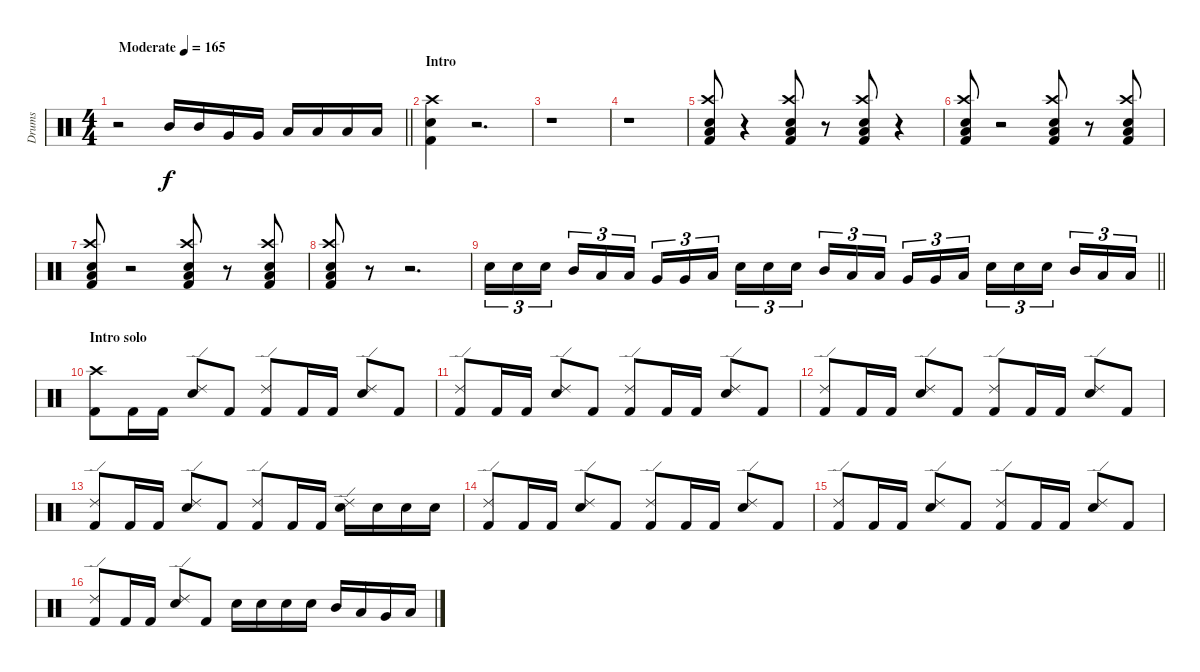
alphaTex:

\track ("Drums" "Drums") {instrument percussion}
\staff {score}
\articulation defaults
\ts (4 4)
\tempo (165 "Moderate")
\clef neutral
\barLineRight lightlight
\ks c
r.2{dy f} "Mid Tom (hit)".16 "Mid Tom (hit)".16 "Very Low Tom (hit)".16 "Very Low Tom (hit)".16 "Low Tom (hit)".16 "Low Tom (hit)".16 "Low Floor Tom (hit)".16 "Low Floor Tom (hit)".16 |
\section ("" "Intro")
("Crash high (hit)" "Snare (hit) 2" "Kick (hit) 2").4 r.2{d} |
r.1 |
r.1 |
("Crash high (hit)" "Snare (hit) 2" "Low Floor Tom (hit)" "Kick (hit) 2").8 r.4 ("Crash high (hit)" "Snare (hit) 2" "Low Floor Tom (hit)" "Kick (hit) 2").8 r.8 ("Crash high (hit)" "Snare (hit) 2" "Low Floor Tom (hit)" "Kick (hit) 2").8 r.4 |
("Crash high (hit)" "Snare (hit) 2" "Low Floor Tom (hit)" "Kick (hit) 2").8 r.2 ("Crash high (hit)" "Snare (hit) 2" "Low Floor Tom (hit)" "Kick (hit) 2").8 r.8 ("Crash high (hit)" "Snare (hit) 2" "Low Floor Tom (hit)" "Kick (hit) 2").8 |
("Crash high (hit)" "Snare (hit) 2" "Low Floor Tom (hit)" "Kick (hit) 2").8 r.2 ("Crash high (hit)" "Snare (hit) 2" "Low Floor Tom (hit)" "Kick (hit) 2").8 r.8 ("Crash high (hit)" "Snare (hit) 2" "Low Floor Tom (hit)" "Kick (hit) 2").8 |
("Crash high (hit)" "Snare (hit) 2" "Low Floor Tom (hit)" "Kick (hit) 2").8 r.8 r.2{d} |
\barLineRight lightlight "Snare (hit) 2".16{tu (3 2)} "Snare (hit) 2".16{tu (3 2)} "Snare (hit) 2".16{tu (3 2) beam splitsecondary} "Mid Tom (hit)".16{tu (3 2)} "Low Tom (hit)".16{tu (3 2)} "Low Tom (hit)".16{tu (3 2)} "Very Low Tom (hit)".16{tu (3 2)} "Very Low Tom (hit)".16{tu (3 2)} "Low Floor Tom (hit)".16{tu (3 2) beam splitsecondary} "Snare (hit) 2".16{tu (3 2)} "Snare (hit) 2".16{tu (3 2)} "Snare (hit) 2".16{tu (3 2)} "Mid Tom (hit)".16{tu (3 2)} "Low Tom (hit)".16{tu (3 2)} "Low Tom (hit)".16{tu (3 2) beam splitsecondary} "Very Low Tom (hit)".16{tu (3 2)} "Very Low Tom (hit)".16{tu (3 2)} "Low Floor Tom (hit)".16{tu (3 2)} "Snare (hit) 2".16{tu (3 2)} "Snare (hit) 2".16{tu (3 2)} "Snare (hit) 2".16{tu (3 2) beam splitsecondary} "Mid Tom (hit)".16{tu (3 2)} "Low Tom (hit)".16{tu (3 2)} "Low Tom (hit)".16{tu (3 2)}
|
\section ("" "Intro solo")
("Crash high (hit)" "Kick (hit) 2").8 "Kick (hit) 2".16 "Kick (hit) 2".16 ("Ride (edge) 2" "Snare (hit) 2").8 "Kick (hit) 2".8 ("Ride (edge) 2" "Kick (hit) 2").8 "Kick (hit) 2".16 "Kick (hit) 2".16 ("Ride (edge) 2" "Snare (hit) 2").8 "Kick (hit) 2".8 |
("Ride (edge) 2" "Kick (hit) 2").8 "Kick (hit) 2".16 "Kick (hit) 2".16 ("Ride (edge) 2" "Snare (hit) 2").8 "Kick (hit) 2".8 ("Ride (edge) 2" "Kick (hit) 2").8 "Kick (hit) 2".16 "Kick (hit) 2".16 ("Ride (edge) 2" "Snare (hit) 2").8 "Kick (hit) 2".8 |
("Ride (edge) 2" "Kick (hit) 2").8 "Kick (hit) 2".16 "Kick (hit) 2".16 ("Ride (edge) 2" "Snare (hit) 2").8 "Kick (hit) 2".8 ("Ride (edge) 2" "Kick (hit) 2").8 "Kick (hit) 2".16 "Kick (hit) 2".16 ("Ride (edge) 2" "Snare (hit) 2").8 "Kick (hit) 2".8 |
("Ride (edge) 2" "Kick (hit) 2").8 "Kick (hit) 2".16 "Kick (hit) 2".16 ("Ride (edge) 2" "Snare (hit) 2").8 "Kick (hit) 2".8 ("Ride (edge) 2" "Kick (hit) 2").8 "Kick (hit) 2".16 "Kick (hit) 2".16 ("Ride (edge) 2" "Snare (hit) 2").16 "Snare (hit) 2".16 "Snare (hit) 2".16 "Snare (hit) 2".16 |
("Ride (edge) 2" "Kick (hit) 2").8 "Kick (hit) 2".16 "Kick (hit) 2".16 ("Ride (edge) 2" "Snare (hit) 2").8 "Kick (hit) 2".8 ("Ride (edge) 2" "Kick (hit) 2").8 "Kick (hit) 2".16 "Kick (hit) 2".16 ("Ride (edge) 2" "Snare (hit) 2").8 "Kick (hit) 2".8 |
("Ride (edge) 2" "Kick (hit) 2").8 "Kick (hit) 2".16 "Kick (hit) 2".16 ("Ride (edge) 2" "Snare (hit) 2").8 "Kick (hit) 2".8 ("Ride (edge) 2" "Kick (hit) 2").8 "Kick (hit) 2".16 "Kick (hit) 2".16 ("Ride (edge) 2" "Snare (hit) 2").8 "Kick (hit) 2".8 |
("Ride (edge) 2" "Kick (hit) 2").8 "Kick (hit) 2".16 "Kick (hit) 2".16 ("Ride (edge) 2" "Snare (hit) 2").8 "Kick (hit) 2".8 "Snare (hit) 2".16 "Snare (hit) 2".16 "Snare (hit) 2".16 "Snare (hit) 2".16 "Mid Tom (hit)".16 "Low Tom (hit)".16 "Very Low Tom (hit)".16 "Low Floor Tom (hit)".16
